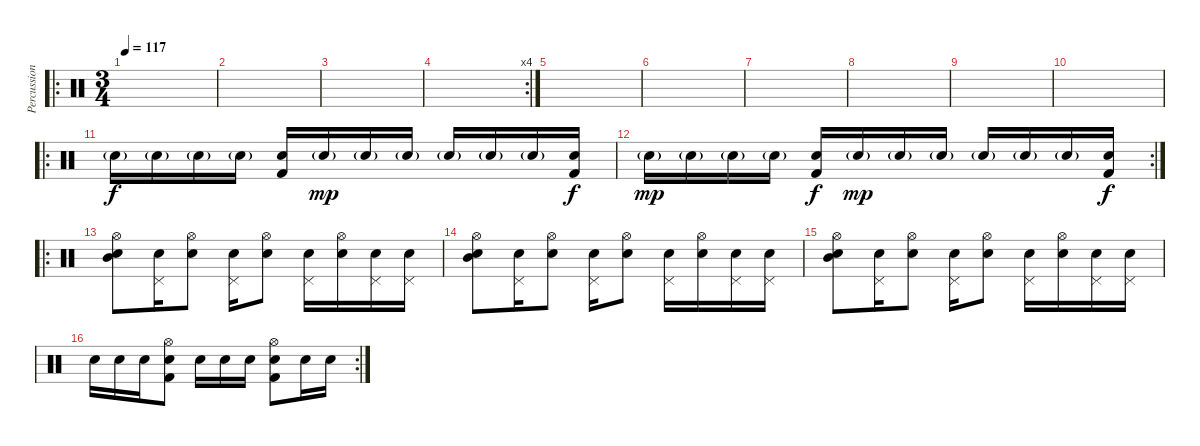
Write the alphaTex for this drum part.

\track ("Percussion" "Percussion") {instrument percussion}
\staff {score}
\articulation defaults
\ro
\ts (3 4)
\tempo 117
\clef neutral
\ks c
|
|
|
\rc 4
|
|
|
|
|
|
|
\ro "Electric Snare (hit)"{g}.16{volume 11} "Electric Snare (hit)"{g}.16 "Electric Snare (hit)"{g}.16 "Electric Snare (hit)"{g}.16
("Electric Snare (hit)" "Kick (hit) 2").16{dy f} "Electric Snare (hit)"{g}.16{dy mp} "Electric Snare (hit)"{g}.16 "Electric Snare (hit)"{g}.16 "Electric Snare (hit)"{g}.16 "Electric Snare (hit)"{g}.16 "Electric Snare (hit)"{g}.16 ("Electric Snare (hit)" "Kick (hit) 2").16{dy f} |
\rc 2 "Electric Snare (hit)"{g}.16{dy mp} "Electric Snare (hit)"{g}.16 "Electric Snare (hit)"{g}.16 "Electric Snare (hit)"{g}.16
("Electric Snare (hit)" "Kick (hit) 2").16{dy f} "Electric Snare (hit)"{g}.16{dy mp} "Electric Snare (hit)"{g}.16 "Electric Snare (hit)"{g}.16 "Electric Snare (hit)"{g}.16 "Electric Snare (hit)"{g}.16 "Electric Snare (hit)"{g}.16 ("Electric Snare (hit)" "Kick (hit) 2").16{dy f} |
\ro
("Mid Tom (hit)" "Hi-Hat (open)" "Snare (hit) 2").8 ("Pedal Hi-Hat (hit)" "Snare (hit) 2").16 ("Hi-Hat (open)" "Electric Snare (hit)").8 ("Pedal Hi-Hat (hit)" "Snare (hit) 2").16 ("Hi-Hat (open)" "Snare (hit) 2").8 ("Pedal Hi-Hat (hit)" "Electric Snare (hit)").16 ("Hi-Hat (open)" "Snare (hit) 2").16 ("Pedal Hi-Hat (hit)" "Snare (hit) 2").16 ("Pedal Hi-Hat (hit)" "Snare (hit) 2").16 |
("Mid Tom (hit)" "Hi-Hat (open)" "Snare (hit) 2").8 ("Pedal Hi-Hat (hit)" "Snare (hit) 2").16 ("Hi-Hat (open)" "Electric Snare (hit)").8 ("Pedal Hi-Hat (hit)" "Snare (hit) 2").16 ("Hi-Hat (open)" "Snare (hit) 2").8 ("Pedal Hi-Hat (hit)" "Electric Snare (hit)").16 ("Hi-Hat (open)" "Snare (hit) 2").16 ("Pedal Hi-Hat (hit)" "Snare (hit) 2").16 ("Pedal Hi-Hat (hit)" "Snare (hit) 2").16 |
("Mid Tom (hit)" "Hi-Hat (open)" "Snare (hit) 2").8 ("Pedal Hi-Hat (hit)" "Snare (hit) 2").16 ("Hi-Hat (open)" "Electric Snare (hit)").8 ("Pedal Hi-Hat (hit)" "Snare (hit) 2").16 ("Hi-Hat (open)" "Snare (hit) 2").8 ("Pedal Hi-Hat (hit)" "Electric Snare (hit)").16 ("Hi-Hat (open)" "Snare (hit) 2").16 ("Pedal Hi-Hat (hit)" "Snare (hit) 2").16 ("Pedal Hi-Hat (hit)" "Snare (hit) 2").16 |
\rc 2 "Electric Snare (hit)".16 "Electric Snare (hit)".16 "Electric Snare (hit)".16
("Hi-Hat (open)" "Electric Snare (hit)" "Kick (hit) 2").8 "Electric Snare (hit)".16 "Electric Snare (hit)".16 "Electric Snare (hit)".16 ("Hi-Hat (open)" "Electric Snare (hit)" "Kick (hit) 2").8 "Electric Snare (hit)".16 "Electric Snare (hit)".16
